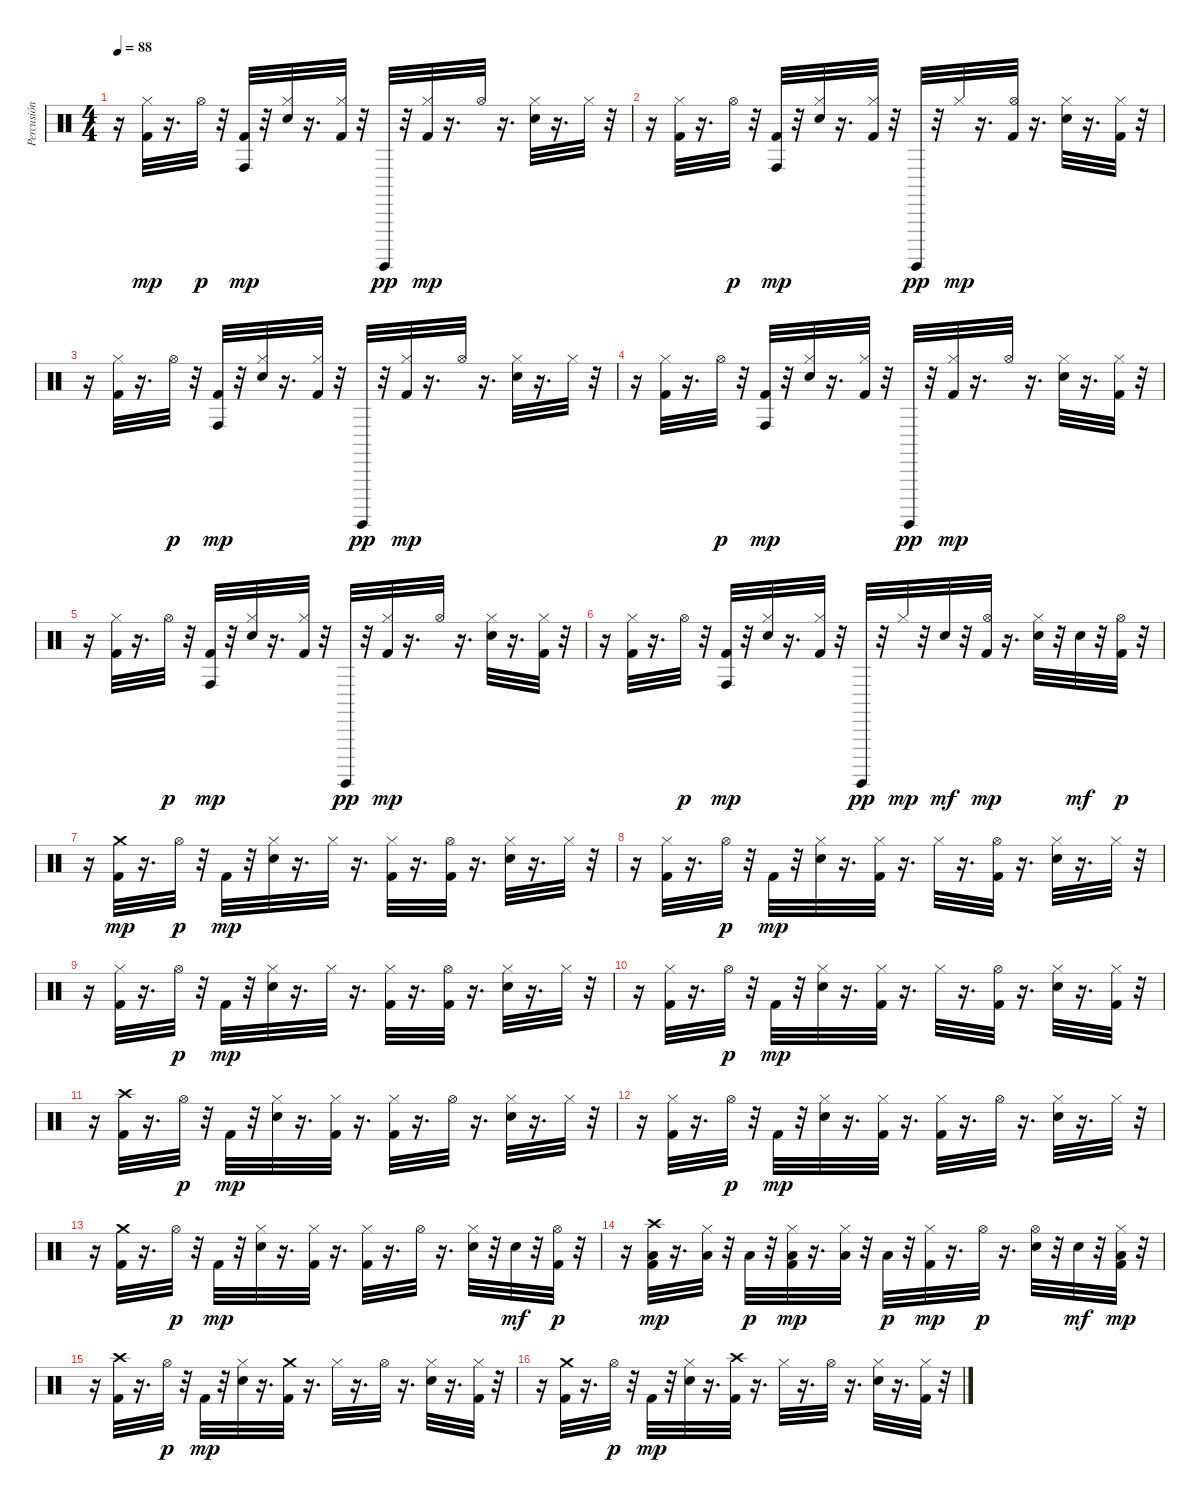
\track ("Percusión" "Percusión") {instrument percussion}
\staff {score}
\articulation defaults
\ts (4 4)
\tempo 88
\clef neutral
\ks c
r.16{dy mp} ("Kick (hit) 2" "Hi-Hat (closed)").32 r.16{d} "Hi-Hat (open)".32{dy p} r.32 ("Kick (hit) 2" "Conga high (hit)").32{dy mp} r.32 ("Electric Snare (hit)" "Hi-Hat (closed)").32 r.16{d} ("Kick (hit) 2" "Hi-Hat (closed)").32 r.32 "Surdo (hit)".32{dy pp} r.32 ("Kick (hit) 2" "Hi-Hat (closed)").32{dy mp} r.16{d} "Hi-Hat (open)".32 r.16{d} ("Electric Snare (hit)" "Hi-Hat (closed)").32 r.16{d} "Hi-Hat (closed)".32 r.32 |
r.16 ("Kick (hit) 2" "Hi-Hat (closed)").32 r.16{d} "Hi-Hat (open)".32{dy p} r.32 ("Kick (hit) 2" "Conga high (hit)").32{dy mp} r.32 ("Electric Snare (hit)" "Hi-Hat (closed)").32 r.16{d} ("Kick (hit) 2" "Hi-Hat (closed)").32 r.32 "Surdo (hit)".32{dy pp} r.32 "Hi-Hat (closed)".32{dy mp} r.16{d} ("Kick (hit) 2" "Hi-Hat (open)").32 r.16{d} ("Electric Snare (hit)" "Hi-Hat (closed)").32 r.16{d} ("Kick (hit) 2" "Hi-Hat (closed)").32 r.32 |
r.16 ("Kick (hit) 2" "Hi-Hat (closed)").32 r.16{d} "Hi-Hat (open)".32{dy p} r.32 ("Kick (hit) 2" "Conga high (hit)").32{dy mp} r.32 ("Electric Snare (hit)" "Hi-Hat (closed)").32 r.16{d} ("Kick (hit) 2" "Hi-Hat (closed)").32 r.32 "Surdo (hit)".32{dy pp} r.32 ("Kick (hit) 2" "Hi-Hat (closed)").32{dy mp} r.16{d} "Hi-Hat (open)".32 r.16{d} ("Electric Snare (hit)" "Hi-Hat (closed)").32 r.16{d} "Hi-Hat (closed)".32 r.32 |
r.16 ("Kick (hit) 2" "Hi-Hat (closed)").32 r.16{d} "Hi-Hat (open)".32{dy p} r.32 ("Kick (hit) 2" "Conga high (hit)").32{dy mp} r.32 ("Electric Snare (hit)" "Hi-Hat (closed)").32 r.16{d} ("Kick (hit) 2" "Hi-Hat (closed)").32 r.32 "Surdo (hit)".32{dy pp} r.32 ("Kick (hit) 2" "Hi-Hat (closed)").32{dy mp} r.16{d} "Hi-Hat (open)".32 r.16{d} ("Electric Snare (hit)" "Hi-Hat (closed)").32 r.16{d} ("Kick (hit) 2" "Hi-Hat (closed)").32 r.32 |
r.16 ("Kick (hit) 2" "Hi-Hat (closed)").32 r.16{d} "Hi-Hat (open)".32{dy p} r.32 ("Kick (hit) 2" "Conga high (hit)").32{dy mp} r.32 ("Electric Snare (hit)" "Hi-Hat (closed)").32 r.16{d} ("Kick (hit) 2" "Hi-Hat (closed)").32 r.32 "Surdo (hit)".32{dy pp} r.32 ("Kick (hit) 2" "Hi-Hat (closed)").32{dy mp} r.16{d} "Hi-Hat (open)".32 r.16{d} ("Electric Snare (hit)" "Hi-Hat (closed)").32 r.16{d} ("Kick (hit) 2" "Hi-Hat (closed)").32 r.32 |
r.16 ("Kick (hit) 2" "Hi-Hat (closed)").32 r.16{d} "Hi-Hat (open)".32{dy p} r.32 ("Kick (hit) 2" "Conga high (hit)").32{dy mp} r.32 ("Electric Snare (hit)" "Hi-Hat (closed)").32 r.16{d} ("Kick (hit) 2" "Hi-Hat (closed)").32 r.32 "Surdo (hit)".32{dy pp} r.32 "Hi-Hat (closed)".32{dy mp} r.32 "Electric Snare (hit)".32{dy mf} r.32 ("Kick (hit) 2" "Hi-Hat (open)").32{dy mp} r.16{d} ("Electric Snare (hit)" "Hi-Hat (closed)").32 r.32 "Electric Snare (hit)".32{dy mf} r.32 ("Kick (hit) 2" "Hi-Hat (open)").32{dy p} r.32 |
r.16 ("Kick (hit) 2" "Crash medium (hit)").32{dy mp} r.16{d} "Hi-Hat (open)".32{dy p} r.32 "Kick (hit) 2".32{dy mp} r.32 ("Electric Snare (hit)" "Hi-Hat (closed)").32 r.16{d} "Hi-Hat (closed)".32 r.16{d} ("Kick (hit) 2" "Hi-Hat (closed)").32 r.16{d} ("Kick (hit) 2" "Hi-Hat (open)").32 r.16{d} ("Electric Snare (hit)" "Hi-Hat (closed)").32 r.16{d} "Hi-Hat (closed)".32 r.32 |
r.16 ("Kick (hit) 2" "Hi-Hat (closed)").32 r.16{d} "Hi-Hat (open)".32{dy p} r.32 "Kick (hit) 2".32{dy mp} r.32 ("Electric Snare (hit)" "Hi-Hat (closed)").32 r.16{d} ("Kick (hit) 2" "Hi-Hat (closed)").32 r.16{d} "Hi-Hat (closed)".32 r.16{d} ("Kick (hit) 2" "Hi-Hat (open)").32 r.16{d} ("Electric Snare (hit)" "Hi-Hat (closed)").32 r.16{d} "Hi-Hat (closed)".32 r.32 |
r.16 ("Kick (hit) 2" "Hi-Hat (closed)").32 r.16{d} "Hi-Hat (open)".32{dy p} r.32 "Kick (hit) 2".32{dy mp} r.32 ("Electric Snare (hit)" "Hi-Hat (closed)").32 r.16{d} "Hi-Hat (closed)".32 r.16{d} ("Kick (hit) 2" "Hi-Hat (closed)").32 r.16{d} ("Kick (hit) 2" "Hi-Hat (open)").32 r.16{d} ("Electric Snare (hit)" "Hi-Hat (closed)").32 r.16{d} "Hi-Hat (closed)".32 r.32 |
r.16 ("Kick (hit) 2" "Hi-Hat (closed)").32 r.16{d} "Hi-Hat (open)".32{dy p} r.32 "Kick (hit) 2".32{dy mp} r.32 ("Electric Snare (hit)" "Hi-Hat (closed)").32 r.16{d} ("Kick (hit) 2" "Hi-Hat (closed)").32 r.16{d} "Hi-Hat (closed)".32 r.16{d} ("Kick (hit) 2" "Hi-Hat (open)").32 r.16{d} ("Electric Snare (hit)" "Hi-Hat (closed)").32 r.16{d} ("Kick (hit) 2" "Hi-Hat (closed)").32 r.32 |
r.16 ("Kick (hit) 2" "Crash high (hit)").32 r.16{d} "Hi-Hat (open)".32{dy p} r.32 "Kick (hit) 2".32{dy mp} r.32 ("Electric Snare (hit)" "Hi-Hat (closed)").32 r.16{d} ("Kick (hit) 2" "Hi-Hat (closed)").32 r.16{d} ("Kick (hit) 2" "Hi-Hat (closed)").32 r.16{d} "Hi-Hat (open)".32 r.16{d} ("Electric Snare (hit)" "Hi-Hat (closed)").32 r.16{d} "Hi-Hat (closed)".32 r.32 |
r.16 ("Kick (hit) 2" "Hi-Hat (closed)").32 r.16{d} "Hi-Hat (open)".32{dy p} r.32 "Kick (hit) 2".32{dy mp} r.32 ("Electric Snare (hit)" "Hi-Hat (closed)").32 r.16{d} ("Kick (hit) 2" "Hi-Hat (closed)").32 r.16{d} ("Kick (hit) 2" "Hi-Hat (closed)").32 r.16{d} "Hi-Hat (open)".32 r.16{d} ("Electric Snare (hit)" "Hi-Hat (closed)").32 r.16{d} "Hi-Hat (closed)".32 r.32 |
r.16 ("Kick (hit) 2" "Crash medium (hit)").32 r.16{d} "Hi-Hat (open)".32{dy p} r.32 "Kick (hit) 2".32{dy mp} r.32 ("Electric Snare (hit)" "Hi-Hat (closed)").32 r.16{d} ("Kick (hit) 2" "Hi-Hat (closed)").32 r.16{d} ("Kick (hit) 2" "Hi-Hat (closed)").32 r.16{d} "Hi-Hat (open)".32 r.16{d} ("Electric Snare (hit)" "Hi-Hat (closed)").32 r.32 "Electric Snare (hit)".32{dy mf} r.32 ("Kick (hit) 2" "Hi-Hat (open)").32{dy p} r.32 |
r.16 ("Low Tom (hit)" "Kick (hit) 2" "Crash high (hit)").32{dy mp} r.16{d} ("Low Tom (hit)" "Hi-Hat (closed)").32 r.32 "Low Tom (hit)".32{dy p} r.32 ("Low Tom (hit)" "Kick (hit) 2" "Hi-Hat (closed)").32{dy mp} r.16{d} ("Low Tom (hit)" "Hi-Hat (closed)").32 r.32 "Low Tom (hit)".32{dy p} r.32 ("Kick (hit) 2" "Hi-Hat (closed)").32{dy mp} r.16{d} "Hi-Hat (open)".32{dy p} r.16{d} ("Electric Snare (hit)" "Hi-Hat (open)").32 r.32 "Electric Snare (hit)".32{dy mf} r.32 ("Low Tom (hit)" "Kick (hit) 2" "Hi-Hat (closed)").32{dy mp} r.32 |
r.16 ("Kick (hit) 2" "Crash high (hit)").32 r.16{d} "Hi-Hat (open)".32{dy p} r.32 "Kick (hit) 2".32{dy mp} r.32 ("Electric Snare (hit)" "Hi-Hat (closed)").32 r.16{d} ("Kick (hit) 2" "Crash medium (hit)").32 r.16{d} "Hi-Hat (closed)".32 r.16{d} "Hi-Hat (open)".32 r.16{d} ("Electric Snare (hit)" "Hi-Hat (closed)").32 r.16{d} ("Kick (hit) 2" "Hi-Hat (closed)").32 r.32 |
r.16 ("Kick (hit) 2" "Crash medium (hit)").32 r.16{d} "Hi-Hat (open)".32{dy p} r.32 "Kick (hit) 2".32{dy mp} r.32 ("Electric Snare (hit)" "Hi-Hat (closed)").32 r.16{d} ("Kick (hit) 2" "Crash high (hit)").32 r.16{d} "Hi-Hat (closed)".32 r.16{d} "Hi-Hat (open)".32 r.16{d} ("Electric Snare (hit)" "Hi-Hat (closed)").32 r.16{d} ("Kick (hit) 2" "Hi-Hat (closed)").32 r.32
